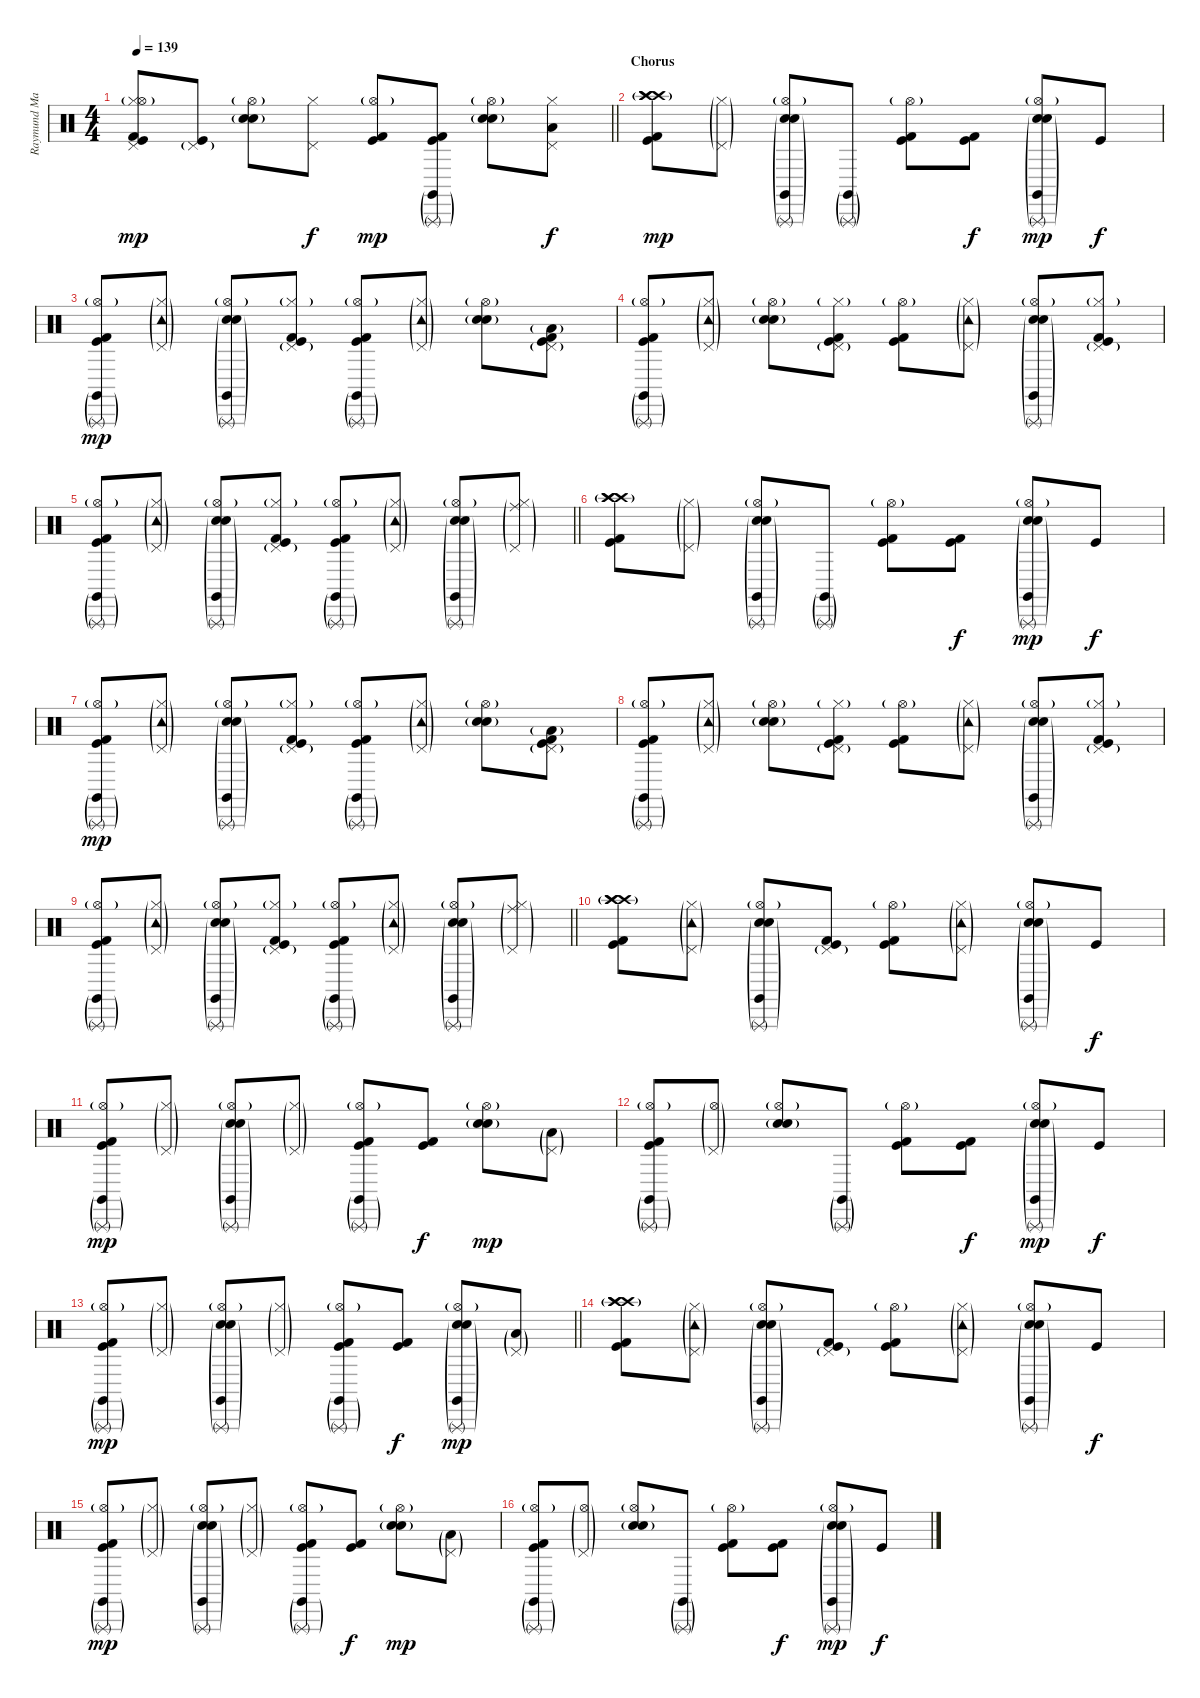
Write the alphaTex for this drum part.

\track ("Raymund Marasigan(Drums)" "Raymund Ma") {instrument percussion}
\staff {score}
\articulation defaults
\ts (4 4)
\tempo 139
\clef neutral
\barLineRight lightlight
\ks c
("Pedal Hi-Hat (hit)" "Hi-Hat (closed)" "Hi-Hat (open)"{g} "Kick (hit) 2" "Kick (hit)").8{bd 60 dy mp} ("Pedal Hi-Hat (hit)"{g} "Kick (hit)").8 ("Electric Snare (hit)" "Snare (hit) 2"{g} "Hi-Hat (open)"{g}).8 ("Pedal Hi-Hat (hit)" "Hi-Hat (closed)").8{dy f} ("Kick (hit) 2" "Kick (hit)" "Hi-Hat (open)"{g}).8{dy mp} ("Kick (hit) 2" "Kick (hit)" "Triangle (rnute)"{g} "Claves (hit)"{g}).8 ("Electric Snare (hit)" "Snare (hit) 2"{g} "Hi-Hat (open)"{g}).8 ("Pedal Hi-Hat (hit)" "Hi-Hat (closed)" "Low Tom (hit)").8{dy f} |
\section ("" "Chorus")
("Crash high (hit)"{g} "Crash high (hit)"{g} "Crash high (hit)"{g} "Kick (hit) 2" "Kick (hit)").8{dy mp} ("Pedal Hi-Hat (hit)"{g} "Hi-Hat (closed)"{g}).8 ("Electric Snare (hit)" "Snare (hit) 2"{g} "Hi-Hat (open)"{g} "Triangle (rnute)"{g} "Claves (hit)"{g}).8 ("Triangle (rnute)"{g} "Claves (hit)"{g}).8 ("Kick (hit) 2" "Kick (hit)" "Hi-Hat (open)"{g}).8 ("Kick (hit) 2" "Kick (hit)").8{dy f} ("Electric Snare (hit)" "Snare (hit) 2"{g} "Hi-Hat (open)"{g} "Triangle (rnute)"{g} "Claves (hit)"{g}).8{dy mp} "Kick (hit)".8{dy f} |
("Kick (hit) 2" "Kick (hit)" "Triangle (rnute)"{g} "Claves (hit)"{g} "Hi-Hat (open)"{g}).8{dy mp} ("Pedal Hi-Hat (hit)"{g} "Hi-Hat (closed)"{g} "Tambourine (hit)"{g}).8 ("Electric Snare (hit)" "Snare (hit) 2"{g} "Hi-Hat (open)"{g} "Triangle (rnute)"{g} "Claves (hit)"{g}).8 ("Kick (hit) 2" "Kick (hit)" "Pedal Hi-Hat (hit)"{g} "Hi-Hat (closed)"{g}).8 ("Kick (hit) 2" "Kick (hit)" "Triangle (rnute)"{g} "Claves (hit)"{g} "Hi-Hat (open)"{g}).8 ("Pedal Hi-Hat (hit)"{g} "Hi-Hat (closed)"{g} "Tambourine (hit)"{g}).8 ("Electric Snare (hit)" "Snare (hit) 2"{g} "Hi-Hat (open)"{g}).8 ("Pedal Hi-Hat (hit)"{g} "Low Tom (hit)"{g} "Kick (hit) 2" "Kick (hit)").8 |
("Hi-Hat (open)"{g} "Triangle (rnute)"{g} "Claves (hit)"{g} "Kick (hit) 2" "Kick (hit)").8 ("Pedal Hi-Hat (hit)"{g} "Hi-Hat (closed)"{g} "Tambourine (hit)"{g}).8 ("Electric Snare (hit)" "Snare (hit) 2"{g} "Hi-Hat (open)"{g}).8 ("Kick (hit) 2" "Kick (hit)" "Pedal Hi-Hat (hit)"{g} "Hi-Hat (closed)"{g}).8 ("Kick (hit) 2" "Kick (hit)" "Hi-Hat (open)"{g}).8 ("Pedal Hi-Hat (hit)"{g} "Hi-Hat (closed)"{g} "Tambourine (hit)"{g}).8 ("Electric Snare (hit)" "Snare (hit) 2"{g} "Hi-Hat (open)"{g} "Triangle (rnute)"{g} "Claves (hit)"{g}).8 ("Kick (hit)" "Kick (hit) 2" "Pedal Hi-Hat (hit)"{g} "Hi-Hat (closed)"{g}).8 |
\barLineRight lightlight
("Kick (hit) 2" "Kick (hit)" "Triangle (rnute)"{g} "Claves (hit)"{g} "Hi-Hat (open)"{g}).8 ("Pedal Hi-Hat (hit)"{g} "Hi-Hat (closed)"{g} "Tambourine (hit)"{g}).8 ("Electric Snare (hit)" "Snare (hit) 2"{g} "Hi-Hat (open)"{g} "Triangle (rnute)"{g} "Claves (hit)"{g}).8 ("Kick (hit) 2" "Kick (hit)" "Pedal Hi-Hat (hit)"{g} "Hi-Hat (closed)"{g}).8 ("Kick (hit) 2" "Kick (hit)" "Triangle (rnute)"{g} "Claves (hit)"{g} "Hi-Hat (open)"{g}).8 ("Pedal Hi-Hat (hit)"{g} "Hi-Hat (closed)"{g} "Tambourine (hit)"{g}).8 ("Electric Snare (hit)" "Snare (hit) 2"{g} "Hi-Hat (open)"{g} "Triangle (rnute)"{g} "Claves (hit)"{g}).8 ("Pedal Hi-Hat (hit)"{g} "Hi-Hat (closed)"{g} "Ride (middle)"{g}).8 |
("Crash high (hit)"{g} "Crash high (hit)"{g} "Crash high (hit)"{g} "Kick (hit) 2" "Kick (hit)").8 ("Pedal Hi-Hat (hit)"{g} "Hi-Hat (closed)"{g}).8 ("Electric Snare (hit)" "Snare (hit) 2"{g} "Hi-Hat (open)"{g} "Triangle (rnute)"{g} "Claves (hit)"{g}).8 ("Triangle (rnute)"{g} "Claves (hit)"{g}).8 ("Kick (hit) 2" "Kick (hit)" "Hi-Hat (open)"{g}).8 ("Kick (hit) 2" "Kick (hit)").8{dy f} ("Electric Snare (hit)" "Snare (hit) 2"{g} "Hi-Hat (open)"{g} "Triangle (rnute)"{g} "Claves (hit)"{g}).8{dy mp} "Kick (hit)".8{dy f} |
("Kick (hit) 2" "Kick (hit)" "Triangle (rnute)"{g} "Claves (hit)"{g} "Hi-Hat (open)"{g}).8{dy mp} ("Pedal Hi-Hat (hit)"{g} "Hi-Hat (closed)"{g} "Tambourine (hit)"{g}).8 ("Electric Snare (hit)" "Snare (hit) 2"{g} "Hi-Hat (open)"{g} "Triangle (rnute)"{g} "Claves (hit)"{g}).8 ("Kick (hit) 2" "Kick (hit)" "Pedal Hi-Hat (hit)"{g} "Hi-Hat (closed)"{g}).8 ("Kick (hit) 2" "Kick (hit)" "Triangle (rnute)"{g} "Claves (hit)"{g} "Hi-Hat (open)"{g}).8 ("Pedal Hi-Hat (hit)"{g} "Hi-Hat (closed)"{g} "Tambourine (hit)"{g}).8 ("Electric Snare (hit)" "Snare (hit) 2"{g} "Hi-Hat (open)"{g}).8 ("Pedal Hi-Hat (hit)"{g} "Low Tom (hit)"{g} "Kick (hit) 2" "Kick (hit)").8 |
("Hi-Hat (open)"{g} "Triangle (rnute)"{g} "Claves (hit)"{g} "Kick (hit) 2" "Kick (hit)").8 ("Pedal Hi-Hat (hit)"{g} "Hi-Hat (closed)"{g} "Tambourine (hit)"{g}).8 ("Electric Snare (hit)" "Snare (hit) 2"{g} "Hi-Hat (open)"{g}).8 ("Kick (hit) 2" "Kick (hit)" "Pedal Hi-Hat (hit)"{g} "Hi-Hat (closed)"{g}).8 ("Kick (hit) 2" "Kick (hit)" "Hi-Hat (open)"{g}).8 ("Pedal Hi-Hat (hit)"{g} "Hi-Hat (closed)"{g} "Tambourine (hit)"{g}).8 ("Electric Snare (hit)" "Snare (hit) 2"{g} "Hi-Hat (open)"{g} "Triangle (rnute)"{g} "Claves (hit)"{g}).8 ("Kick (hit)" "Kick (hit) 2" "Pedal Hi-Hat (hit)"{g} "Hi-Hat (closed)"{g}).8 |
\barLineRight lightlight
("Kick (hit) 2" "Kick (hit)" "Triangle (rnute)"{g} "Claves (hit)"{g} "Hi-Hat (open)"{g}).8 ("Pedal Hi-Hat (hit)"{g} "Hi-Hat (closed)"{g} "Tambourine (hit)"{g}).8 ("Electric Snare (hit)" "Snare (hit) 2"{g} "Hi-Hat (open)"{g} "Triangle (rnute)"{g} "Claves (hit)"{g}).8 ("Kick (hit) 2" "Kick (hit)" "Pedal Hi-Hat (hit)"{g} "Hi-Hat (closed)"{g}).8 ("Kick (hit) 2" "Kick (hit)" "Triangle (rnute)"{g} "Claves (hit)"{g} "Hi-Hat (open)"{g}).8 ("Pedal Hi-Hat (hit)"{g} "Hi-Hat (closed)"{g} "Tambourine (hit)"{g}).8 ("Electric Snare (hit)" "Snare (hit) 2"{g} "Hi-Hat (open)"{g} "Triangle (rnute)"{g} "Claves (hit)"{g}).8 ("Pedal Hi-Hat (hit)"{g} "Hi-Hat (closed)"{g} "Ride (middle)"{g}).8 |
("Crash high (hit)"{g} "Crash high (hit)"{g} "Crash high (hit)"{g} "Kick (hit) 2" "Kick (hit)").8 ("Pedal Hi-Hat (hit)"{g} "Hi-Hat (closed)"{g} "Tambourine (hit)"{g}).8 ("Electric Snare (hit)" "Snare (hit) 2"{g} "Hi-Hat (open)"{g} "Triangle (rnute)"{g} "Claves (hit)"{g}).8 ("Kick (hit) 2" "Kick (hit)" "Pedal Hi-Hat (hit)"{g}).8 ("Kick (hit) 2" "Kick (hit)" "Hi-Hat (open)"{g}).8 ("Pedal Hi-Hat (hit)"{g} "Hi-Hat (closed)"{g} "Tambourine (hit)"{g}).8 ("Electric Snare (hit)" "Snare (hit) 2"{g} "Hi-Hat (open)"{g} "Triangle (rnute)"{g} "Claves (hit)"{g}).8 "Kick (hit)".8{dy f} |
("Kick (hit) 2" "Kick (hit)" "Triangle (rnute)"{g} "Claves (hit)"{g} "Hi-Hat (open)"{g}).8{dy mp} ("Pedal Hi-Hat (hit)"{g} "Hi-Hat (closed)"{g}).8 ("Electric Snare (hit)" "Snare (hit) 2"{g} "Hi-Hat (open)"{g} "Triangle (rnute)"{g} "Claves (hit)"{g}).8 ("Pedal Hi-Hat (hit)"{g} "Hi-Hat (closed)"{g}).8 ("Kick (hit) 2" "Kick (hit)" "Triangle (rnute)"{g} "Claves (hit)"{g} "Hi-Hat (open)"{g}).8 ("Kick (hit) 2" "Kick (hit)").8{dy f} ("Electric Snare (hit)" "Snare (hit) 2"{g} "Hi-Hat (open)"{g}).8{dy mp} ("Pedal Hi-Hat (hit)"{g} "Low Tom (hit)"{g}).8 |
("Hi-Hat (open)"{g} "Triangle (rnute)"{g} "Claves (hit)"{g} "Kick (hit) 2" "Kick (hit)").8 ("Pedal Hi-Hat (hit)"{g} "Hi-Hat (open)"{g}).8 ("Electric Snare (hit)" "Snare (hit) 2"{g} "Hi-Hat (open)"{g}).8 ("Triangle (rnute)"{g} "Claves (hit)"{g}).8 ("Kick (hit) 2" "Kick (hit)" "Hi-Hat (open)"{g}).8 ("Kick (hit) 2" "Kick (hit)").8{dy f} ("Electric Snare (hit)" "Snare (hit) 2"{g} "Hi-Hat (open)"{g} "Triangle (rnute)"{g} "Claves (hit)"{g}).8{dy mp} "Kick (hit)".8{dy f} |
\barLineRight lightlight
("Kick (hit) 2" "Kick (hit)" "Triangle (rnute)"{g} "Claves (hit)"{g} "Hi-Hat (open)"{g}).8{dy mp} ("Pedal Hi-Hat (hit)"{g} "Hi-Hat (closed)"{g}).8 ("Electric Snare (hit)" "Snare (hit) 2"{g} "Hi-Hat (open)"{g} "Triangle (rnute)"{g} "Claves (hit)"{g}).8 ("Pedal Hi-Hat (hit)"{g} "Hi-Hat (closed)"{g}).8 ("Kick (hit) 2" "Kick (hit)" "Triangle (rnute)"{g} "Claves (hit)"{g} "Hi-Hat (open)"{g}).8 ("Kick (hit) 2" "Kick (hit)").8{dy f} ("Electric Snare (hit)" "Snare (hit) 2"{g} "Hi-Hat (open)"{g} "Triangle (rnute)"{g} "Claves (hit)"{g}).8{dy mp} ("Pedal Hi-Hat (hit)"{g} "Low Tom (hit)"{g}).8 |
("Crash high (hit)"{g} "Crash high (hit)"{g} "Crash high (hit)"{g} "Kick (hit) 2" "Kick (hit)").8 ("Pedal Hi-Hat (hit)"{g} "Hi-Hat (closed)"{g} "Tambourine (hit)"{g}).8 ("Electric Snare (hit)" "Snare (hit) 2"{g} "Hi-Hat (open)"{g} "Triangle (rnute)"{g} "Claves (hit)"{g}).8 ("Kick (hit) 2" "Kick (hit)" "Pedal Hi-Hat (hit)"{g}).8 ("Kick (hit) 2" "Kick (hit)" "Hi-Hat (open)"{g}).8 ("Pedal Hi-Hat (hit)"{g} "Hi-Hat (closed)"{g} "Tambourine (hit)"{g}).8 ("Electric Snare (hit)" "Snare (hit) 2"{g} "Hi-Hat (open)"{g} "Triangle (rnute)"{g} "Claves (hit)"{g}).8 "Kick (hit)".8{dy f} |
("Kick (hit) 2" "Kick (hit)" "Triangle (rnute)"{g} "Claves (hit)"{g} "Hi-Hat (open)"{g}).8{dy mp} ("Pedal Hi-Hat (hit)"{g} "Hi-Hat (closed)"{g}).8 ("Electric Snare (hit)" "Snare (hit) 2"{g} "Hi-Hat (open)"{g} "Triangle (rnute)"{g} "Claves (hit)"{g}).8 ("Pedal Hi-Hat (hit)"{g} "Hi-Hat (closed)"{g}).8 ("Kick (hit) 2" "Kick (hit)" "Triangle (rnute)"{g} "Claves (hit)"{g} "Hi-Hat (open)"{g}).8 ("Kick (hit) 2" "Kick (hit)").8{dy f} ("Electric Snare (hit)" "Snare (hit) 2"{g} "Hi-Hat (open)"{g}).8{dy mp} ("Pedal Hi-Hat (hit)"{g} "Low Tom (hit)"{g}).8 |
("Hi-Hat (open)"{g} "Triangle (rnute)"{g} "Claves (hit)"{g} "Kick (hit) 2" "Kick (hit)").8 ("Pedal Hi-Hat (hit)"{g} "Hi-Hat (open)"{g}).8 ("Electric Snare (hit)" "Snare (hit) 2"{g} "Hi-Hat (open)"{g}).8 ("Triangle (rnute)"{g} "Claves (hit)"{g}).8 ("Kick (hit) 2" "Kick (hit)" "Hi-Hat (open)"{g}).8 ("Kick (hit) 2" "Kick (hit)").8{dy f} ("Electric Snare (hit)" "Snare (hit) 2"{g} "Hi-Hat (open)"{g} "Triangle (rnute)"{g} "Claves (hit)"{g}).8{dy mp} "Kick (hit)".8{dy f}
